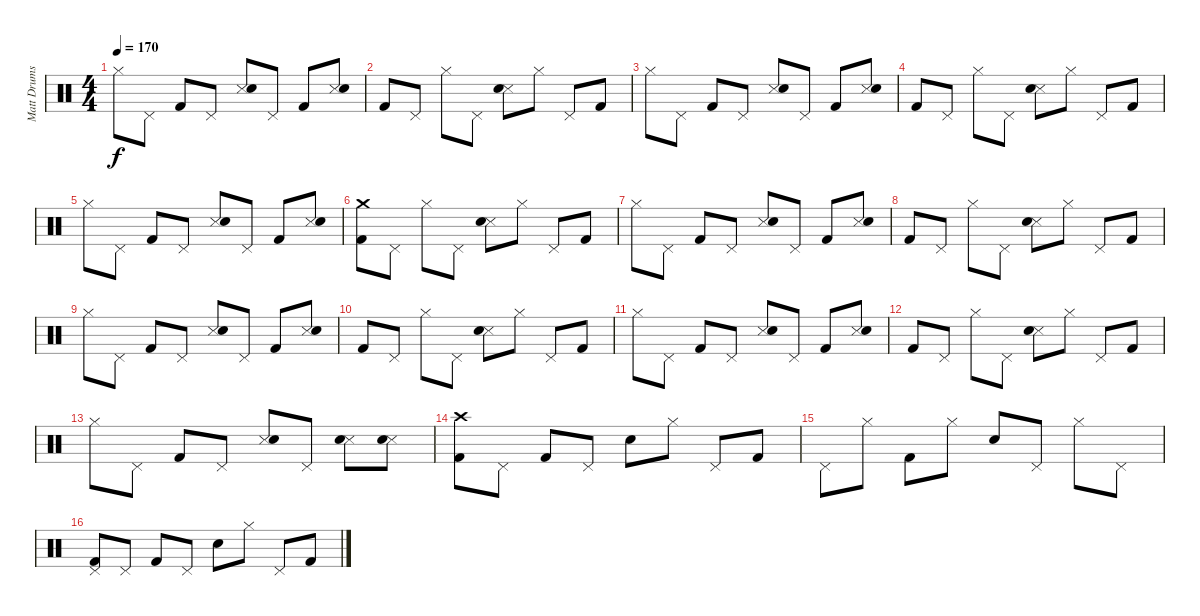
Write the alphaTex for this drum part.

\track ("Matt Drums" "Matt Drums") {instrument percussion}
\staff {score}
\articulation defaults
\ts (4 4)
\tempo 170
\clef neutral
\ks c "Hi-Hat (closed)".8{dy f} "Pedal Hi-Hat (hit)".8 "Kick (hit) 2".8 "Pedal Hi-Hat (hit)".8
("Snare (side stick) 3" "Electric Snare (hit)").8 "Pedal Hi-Hat (hit)".8 "Kick (hit) 2".8 ("Snare (side stick) 3" "Electric Snare (hit)").8 |
"Kick (hit) 2".8 "Pedal Hi-Hat (hit)".8 "Hi-Hat (closed)".8 "Pedal Hi-Hat (hit)".8 ("Snare (side stick) 3" "Electric Snare (hit)").8 "Hi-Hat (closed)".8 "Pedal Hi-Hat (hit)".8 "Kick (hit) 2".8 |
"Hi-Hat (closed)".8 "Pedal Hi-Hat (hit)".8 "Kick (hit) 2".8 "Pedal Hi-Hat (hit)".8 ("Snare (side stick) 3" "Electric Snare (hit)").8 "Pedal Hi-Hat (hit)".8 "Kick (hit) 2".8 ("Snare (side stick) 3" "Electric Snare (hit)").8 |
"Kick (hit) 2".8 "Pedal Hi-Hat (hit)".8 "Hi-Hat (closed)".8 "Pedal Hi-Hat (hit)".8 ("Snare (side stick) 3" "Electric Snare (hit)").8 "Hi-Hat (closed)".8 "Pedal Hi-Hat (hit)".8 "Kick (hit) 2".8 |
"Hi-Hat (closed)".8 "Pedal Hi-Hat (hit)".8 "Kick (hit) 2".8 "Pedal Hi-Hat (hit)".8 ("Snare (side stick) 3" "Electric Snare (hit)").8 "Pedal Hi-Hat (hit)".8 "Kick (hit) 2".8 ("Snare (side stick) 3" "Electric Snare (hit)").8 |
("Crash medium (hit)" "Kick (hit) 2").8 "Pedal Hi-Hat (hit)".8 "Hi-Hat (closed)".8 "Pedal Hi-Hat (hit)".8 ("Snare (side stick) 3" "Electric Snare (hit)").8 "Hi-Hat (closed)".8 "Pedal Hi-Hat (hit)".8 "Kick (hit) 2".8 |
"Hi-Hat (closed)".8 "Pedal Hi-Hat (hit)".8 "Kick (hit) 2".8 "Pedal Hi-Hat (hit)".8 ("Snare (side stick) 3" "Electric Snare (hit)").8 "Pedal Hi-Hat (hit)".8 "Kick (hit) 2".8 ("Snare (side stick) 3" "Electric Snare (hit)").8 |
"Kick (hit) 2".8 "Pedal Hi-Hat (hit)".8 "Hi-Hat (closed)".8 "Pedal Hi-Hat (hit)".8 ("Snare (side stick) 3" "Electric Snare (hit)").8 "Hi-Hat (closed)".8 "Pedal Hi-Hat (hit)".8 "Kick (hit) 2".8 |
"Hi-Hat (closed)".8 "Pedal Hi-Hat (hit)".8 "Kick (hit) 2".8 "Pedal Hi-Hat (hit)".8 ("Snare (side stick) 3" "Electric Snare (hit)").8 "Pedal Hi-Hat (hit)".8 "Kick (hit) 2".8 ("Snare (side stick) 3" "Electric Snare (hit)").8 |
"Kick (hit) 2".8 "Pedal Hi-Hat (hit)".8 "Hi-Hat (closed)".8 "Pedal Hi-Hat (hit)".8 ("Snare (side stick) 3" "Electric Snare (hit)").8 "Hi-Hat (closed)".8 "Pedal Hi-Hat (hit)".8 "Kick (hit) 2".8 |
"Hi-Hat (closed)".8 "Pedal Hi-Hat (hit)".8 "Kick (hit) 2".8 "Pedal Hi-Hat (hit)".8 ("Snare (side stick) 3" "Electric Snare (hit)").8 "Pedal Hi-Hat (hit)".8 "Kick (hit) 2".8 ("Snare (side stick) 3" "Electric Snare (hit)").8 |
"Kick (hit) 2".8 "Pedal Hi-Hat (hit)".8 "Hi-Hat (closed)".8 "Pedal Hi-Hat (hit)".8 ("Snare (side stick) 3" "Electric Snare (hit)").8 "Hi-Hat (closed)".8 "Pedal Hi-Hat (hit)".8 "Kick (hit) 2".8 |
"Hi-Hat (closed)".8 "Pedal Hi-Hat (hit)".8 "Kick (hit) 2".8 "Pedal Hi-Hat (hit)".8 ("Snare (side stick) 3" "Electric Snare (hit)").8 "Pedal Hi-Hat (hit)".8 ("Snare (side stick) 3" "Electric Snare (hit)").8 ("Snare (side stick) 3" "Electric Snare (hit)").8 |
("Crash high (hit)" "Kick (hit) 2").8 "Pedal Hi-Hat (hit)".8 "Kick (hit) 2".8 "Pedal Hi-Hat (hit)".8 "Electric Snare (hit)".8 "Hi-Hat (closed)".8 "Pedal Hi-Hat (hit)".8 "Kick (hit) 2".8 |
"Pedal Hi-Hat (hit)".8 "Hi-Hat (closed)".8 "Kick (hit) 2".8 "Hi-Hat (closed)".8 "Electric Snare (hit)".8 "Pedal Hi-Hat (hit)".8 "Hi-Hat (closed)".8 "Pedal Hi-Hat (hit)".8 |
("Pedal Hi-Hat (hit)" "Kick (hit) 2").8 "Pedal Hi-Hat (hit)".8 "Kick (hit) 2".8 "Pedal Hi-Hat (hit)".8 "Electric Snare (hit)".8 "Hi-Hat (closed)".8 "Pedal Hi-Hat (hit)".8 "Kick (hit) 2".8
